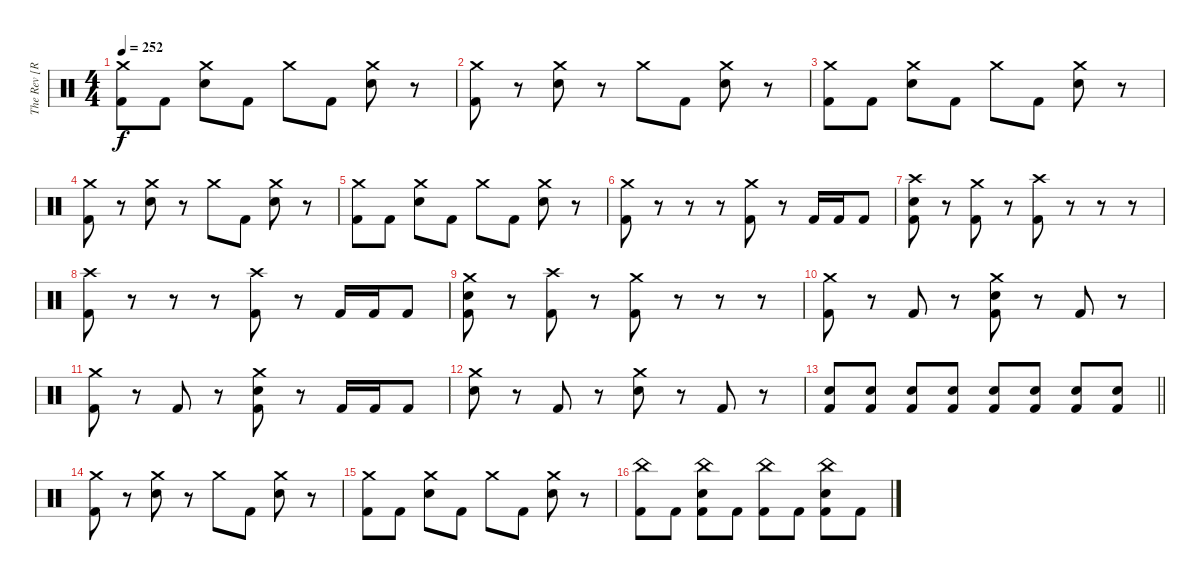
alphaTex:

\track ("The Rev [R.I.P]" "The Rev [R") {instrument percussion}
\staff {score}
\articulation defaults
\ts (4 4)
\tempo 252
\clef neutral
\ks c
("Crash medium (hit)" "Kick (hit) 2").8{dy f} "Kick (hit) 2".8 ("Crash medium (hit)" "Electric Snare (hit)").8 "Kick (hit) 2".8 "Crash medium (hit)".8 "Kick (hit) 2".8 ("Crash medium (hit)" "Electric Snare (hit)").8 r.8 |
("Crash medium (hit)" "Kick (hit) 2").8 r.8 ("Crash medium (hit)" "Electric Snare (hit)").8 r.8 "Crash medium (hit)".8 "Kick (hit) 2".8 ("Crash medium (hit)" "Electric Snare (hit)").8 r.8 |
("Crash medium (hit)" "Kick (hit) 2").8 "Kick (hit) 2".8 ("Crash medium (hit)" "Electric Snare (hit)").8 "Kick (hit) 2".8 "Crash medium (hit)".8 "Kick (hit) 2".8 ("Crash medium (hit)" "Electric Snare (hit)").8 r.8 |
("Crash medium (hit)" "Kick (hit) 2").8 r.8 ("Crash medium (hit)" "Electric Snare (hit)").8 r.8 "Crash medium (hit)".8 "Kick (hit) 2".8 ("Crash medium (hit)" "Electric Snare (hit)").8 r.8 |
("Crash medium (hit)" "Kick (hit) 2").8 "Kick (hit) 2".8 ("Crash medium (hit)" "Electric Snare (hit)").8 "Kick (hit) 2".8 "Crash medium (hit)".8 "Kick (hit) 2".8 ("Crash medium (hit)" "Electric Snare (hit)").8 r.8 |
("Crash medium (hit)" "Kick (hit) 2").8 r.8 r.8 r.8 ("Crash medium (hit)" "Kick (hit) 2").8 r.8 "Kick (hit) 2".16 "Kick (hit) 2".16 "Kick (hit) 2".8 |
("Crash high (hit)" "Electric Snare (hit)" "Kick (hit) 2").8 r.8 ("Crash medium (hit)" "Kick (hit) 2").8 r.8 ("Crash high (hit)" "Kick (hit) 2").8 r.8 r.8 r.8 |
("Crash high (hit)" "Kick (hit) 2").8 r.8 r.8 r.8 ("Crash high (hit)" "Kick (hit) 2").8 r.8 "Kick (hit) 2".16 "Kick (hit) 2".16 "Kick (hit) 2".8 |
("Crash medium (hit)" "Electric Snare (hit)" "Kick (hit) 2").8 r.8 ("Crash high (hit)" "Kick (hit) 2").8 r.8 ("Crash medium (hit)" "Kick (hit) 2").8 r.8 r.8 r.8 |
("Crash medium (hit)" "Kick (hit) 2").8 r.8 "Kick (hit) 2".8 r.8 ("Crash medium (hit)" "Electric Snare (hit)" "Kick (hit) 2").8 r.8 "Kick (hit) 2".8 r.8 |
("Crash medium (hit)" "Kick (hit) 2").8 r.8 "Kick (hit) 2".8 r.8 ("Crash medium (hit)" "Electric Snare (hit)" "Kick (hit) 2").8 r.8 "Kick (hit) 2".16 "Kick (hit) 2".16 "Kick (hit) 2".8 |
("Crash medium (hit)" "Electric Snare (hit)").8 r.8 "Kick (hit) 2".8 r.8 ("Crash medium (hit)" "Electric Snare (hit)").8 r.8 "Kick (hit) 2".8 r.8 |
\barLineRight lightlight
("Electric Snare (hit)" "Kick (hit) 2").8 ("Electric Snare (hit)" "Kick (hit) 2").8 ("Electric Snare (hit)" "Kick (hit) 2").8 ("Electric Snare (hit)" "Kick (hit) 2").8 ("Electric Snare (hit)" "Kick (hit) 2").8 ("Electric Snare (hit)" "Kick (hit) 2").8 ("Electric Snare (hit)" "Kick (hit) 2").8 ("Electric Snare (hit)" "Kick (hit) 2").8 |
("Crash medium (hit)" "Kick (hit) 2").8 r.8 ("Crash medium (hit)" "Electric Snare (hit)").8 r.8 "Crash medium (hit)".8 "Kick (hit) 2".8 ("Crash medium (hit)" "Electric Snare (hit)").8 r.8 |
("Crash medium (hit)" "Kick (hit) 2").8 "Kick (hit) 2".8 ("Crash medium (hit)" "Electric Snare (hit)").8 "Kick (hit) 2".8 "Crash medium (hit)".8 "Kick (hit) 2".8 ("Crash medium (hit)" "Electric Snare (hit)").8 r.8 |
("China (hit)" "Kick (hit) 2").8 "Kick (hit) 2".8 ("China (hit)" "Electric Snare (hit)" "Kick (hit) 2").8 "Kick (hit) 2".8 ("China (hit)" "Kick (hit) 2").8 "Kick (hit) 2".8 ("China (hit)" "Electric Snare (hit)" "Kick (hit) 2").8 "Kick (hit) 2".8
